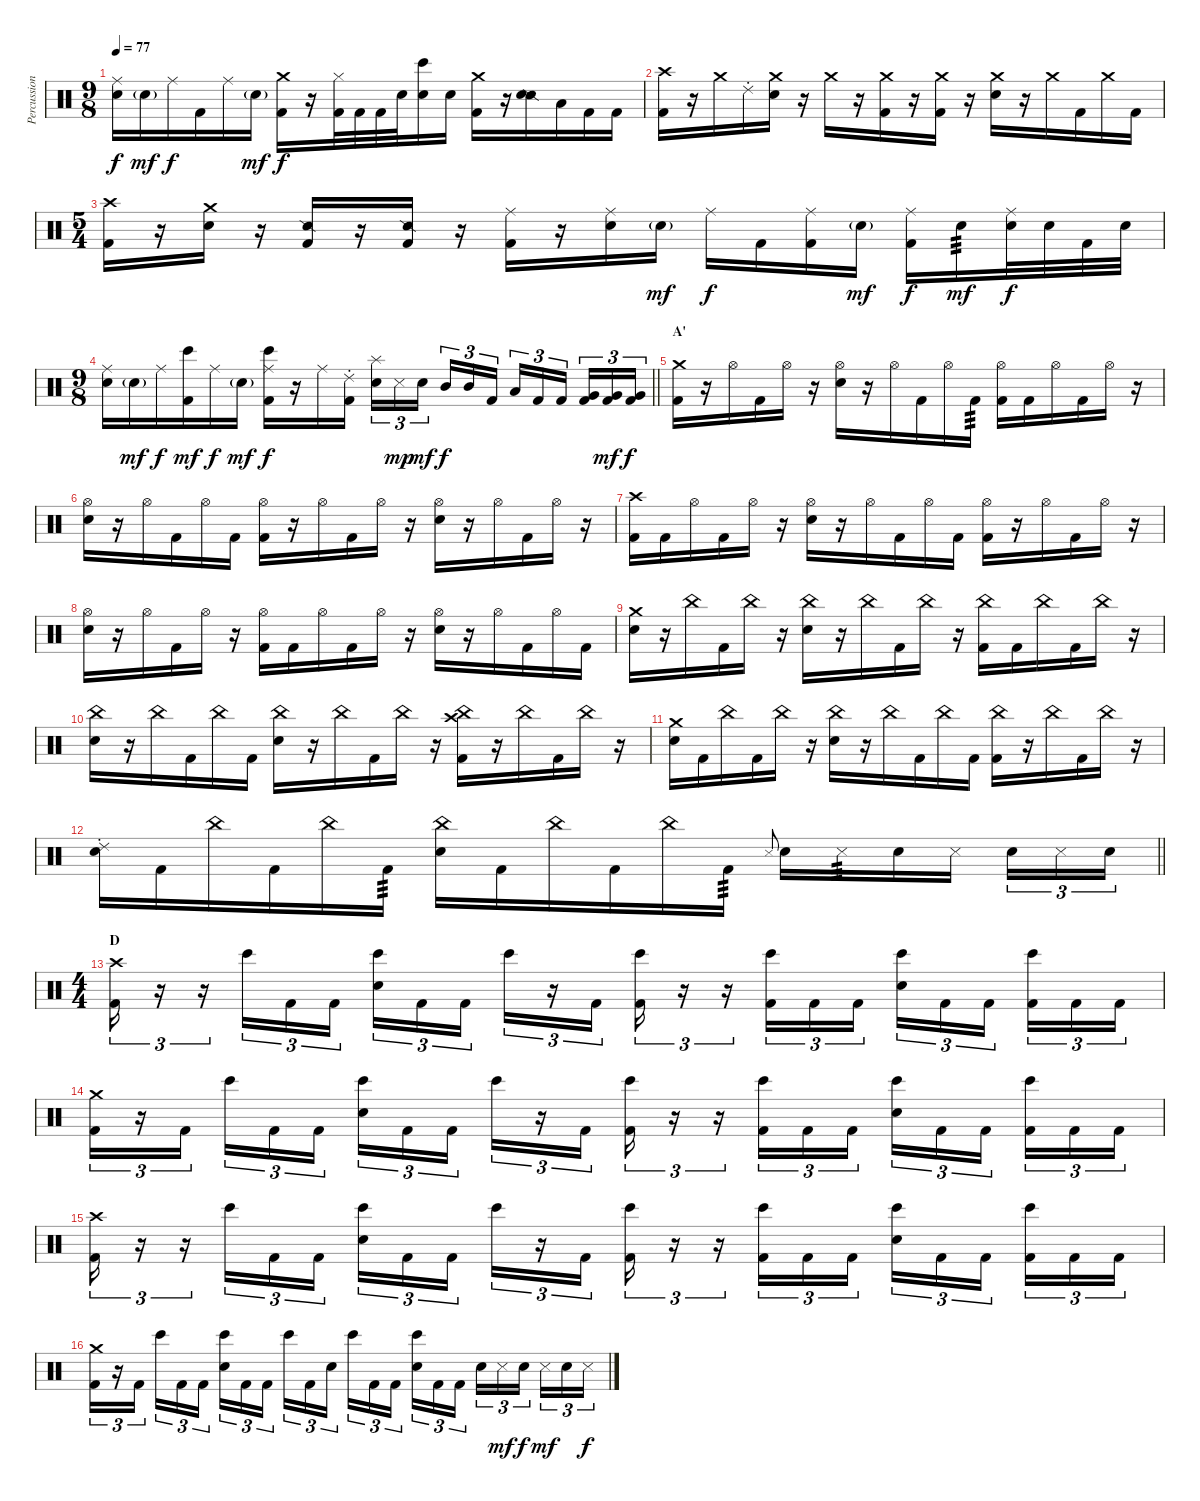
\track ("Percussion" "Percussion") {instrument percussion}
\staff {score}
\articulation defaults
\ts (9 8)
\tempo 77
\clef neutral
\ks c
("Ride (middle)" "Snare (hit) 2").16{dy f} "Snare (hit) 2"{g}.16{dy mf} "Ride (middle)".16{dy f} "Kick (hit) 2".16 "Ride (middle)".16 "Snare (hit) 2"{g}.16{dy mf} ("Crash medium (hit)" "Kick (hit) 2").16{dy f} r.16 ("Hi-Hat (closed)" "Kick (hit) 2").32 "Kick (hit) 2".32 "Kick (hit) 2".32 "Snare (hit) 2".32 ("Bongo High (hit)" "Snare (hit) 2").16 "Snare (hit) 2".16 ("Crash medium (hit)" "Kick (hit) 2").16 r.16 ("Snare (side stick) 2" "Snare (hit) 2").16 "Low Tom (hit)".16 "Kick (hit) 2".16 "Kick (hit) 2".16 |
("Crash high (hit)" "Kick (hit) 2").16 r.16 "Crash medium (hit)".16 "Ride (choke) 2".16 ("Crash medium (hit)" "Snare (hit) 2").16 r.16 "Crash medium (hit)".16 r.16 ("Crash medium (hit)" "Kick (hit) 2").16 r.16 ("Crash medium (hit)" "Kick (hit) 2").16 r.16 ("Crash medium (hit)" "Snare (hit) 2").16 r.16 "Crash medium (hit)".16 "Kick (hit) 2".16 "Crash medium (hit)".16 "Kick (hit) 2".16 |
\ts (5 4)
("Crash high (hit)" "Kick (hit) 2").16 r.16 ("Crash medium (hit)" "Snare (hit) 2").16 r.16 ("Snare (side stick) 2" "Kick (hit) 2").16 r.16 ("Snare (side stick) 2" "Kick (hit) 2").16 r.16 ("Ride (middle)" "Kick (hit) 2").16 r.16 ("Ride (middle)" "Snare (hit) 2").16 "Snare (hit) 2"{g}.16{dy mf} "Ride (middle)".16{dy f} "Kick (hit) 2".16 ("Ride (middle)" "Kick (hit) 2").16 "Snare (hit) 2"{g}.16{dy mf} ("Ride (middle)" "Kick (hit) 2").16{dy f} "Snare (hit) 2".16{tp 3 dy mf} ("Ride (middle)" "Snare (hit) 2").32{dy f} "Snare (hit) 2".32 "Kick (hit) 2".32 "Snare (hit) 2".32 |
\ts (9 8)
\barLineRight lightlight
("Ride (middle)" "Snare (hit) 2").16 "Snare (hit) 2"{g}.16{dy mf} "Ride (middle)".16{dy f} ("Bongo High (hit)" "Kick (hit) 2").16{dy mf} "Ride (middle)".16{dy f} "Snare (hit) 2"{g}.16{dy mf} ("Ride (middle)" "Bongo High (hit)" "Kick (hit) 2").16{dy f} r.16 "Ride (middle)".16 ("Ride (choke) 2" "Kick (hit) 2").16{beam splitsecondary} ("Splash (hit)" "Snare (hit) 2").16{tu (3 2)} "Metronome (hit)".16{tu (3 2) dy mp} "Snare (hit) 2".16{tu (3 2) dy mf} "Mid Tom (hit)".16{tu (3 2) dy f} "Mid Tom (hit)".16{tu (3 2)} "Kick (hit) 2".16{tu (3 2) beam splitsecondary} "Low Tom (hit)".16{tu (3 2)} "Kick (hit) 2".16{tu (3 2)} "Kick (hit) 2".16{tu (3 2) beam splitsecondary} ("Very Low Tom (hit)" "Kick (hit) 2").16{tu (3 2)} ("Very Low Tom (hit)" "Kick (hit) 2").16{tu (3 2) dy mf} ("Very Low Tom (hit)" "Kick (hit) 2").16{tu (3 2) dy f} |
\section ("" "A'")
("Crash medium (hit)" "Kick (hit) 2").16 r.16 "Hi-Hat (open)".16 "Kick (hit) 2".16 "Hi-Hat (open)".16 r.16 ("Hi-Hat (open)" "Snare (hit) 2").16 r.16 "Hi-Hat (open)".16 "Kick (hit) 2".16 "Hi-Hat (open)".16 "Kick (hit) 2".16{tp 3} ("Hi-Hat (open)" "Kick (hit) 2").16 "Kick (hit) 2".16 "Hi-Hat (open)".16 "Kick (hit) 2".16 "Hi-Hat (open)".16 r.16 |
("Hi-Hat (open)" "Snare (hit) 2").16 r.16 "Hi-Hat (open)".16 "Kick (hit) 2".16 "Hi-Hat (open)".16 "Kick (hit) 2".16 ("Hi-Hat (open)" "Kick (hit) 2").16 r.16 "Hi-Hat (open)".16 "Kick (hit) 2".16 "Hi-Hat (open)".16 r.16 ("Hi-Hat (open)" "Snare (hit) 2").16 r.16 "Hi-Hat (open)".16 "Kick (hit) 2".16 "Hi-Hat (open)".16 r.16 |
("Crash high (hit)" "Kick (hit) 2").16 "Kick (hit) 2".16 "Hi-Hat (open)".16 "Kick (hit) 2".16 "Hi-Hat (open)".16 r.16 ("Hi-Hat (open)" "Snare (hit) 2").16 r.16 "Hi-Hat (open)".16 "Kick (hit) 2".16 "Hi-Hat (open)".16 "Kick (hit) 2".16 ("Hi-Hat (open)" "Kick (hit) 2").16 r.16 "Hi-Hat (open)".16 "Kick (hit) 2".16 "Hi-Hat (open)".16 r.16 |
("Hi-Hat (open)" "Snare (hit) 2").16 r.16 "Hi-Hat (open)".16 "Kick (hit) 2".16 "Hi-Hat (open)".16 r.16 ("Hi-Hat (open)" "Kick (hit) 2").16 "Kick (hit) 2".16 "Hi-Hat (open)".16 "Kick (hit) 2".16 "Hi-Hat (open)".16 r.16 ("Hi-Hat (open)" "Snare (hit) 2").16 r.16 "Hi-Hat (open)".16 "Kick (hit) 2".16 "Hi-Hat (open)".16 "Kick (hit) 2".16 |
("Crash medium (hit)" "Snare (hit) 2").16 r.16 "China (hit)".16 "Kick (hit) 2".16 "China (hit)".16 r.16 ("China (hit)" "Snare (hit) 2").16 r.16 "China (hit)".16 "Kick (hit) 2".16 "China (hit)".16 r.16 ("China (hit)" "Kick (hit) 2").16 "Kick (hit) 2".16 "China (hit)".16 "Kick (hit) 2".16 "China (hit)".16 r.16 |
("China (hit)" "Snare (hit) 2").16 r.16 "China (hit)".16 "Kick (hit) 2".16 "China (hit)".16 "Kick (hit) 2".16 ("China (hit)" "Snare (hit) 2").16 r.16 "China (hit)".16 "Kick (hit) 2".16 "China (hit)".16 r.16 ("China (hit)" "Crash high (hit)" "Kick (hit) 2").16 r.16 "China (hit)".16 "Kick (hit) 2".16 "China (hit)".16 r.16 |
("Crash medium (hit)" "Snare (hit) 2").16 "Kick (hit) 2".16 "China (hit)".16 "Kick (hit) 2".16 "China (hit)".16 r.16 ("China (hit)" "Snare (hit) 2").16 r.16 "China (hit)".16 "Kick (hit) 2".16 "China (hit)".16 "Kick (hit) 2".16 ("China (hit)" "Kick (hit) 2").16 r.16 "China (hit)".16 "Kick (hit) 2".16 "China (hit)".16 r.16 |
\barLineRight lightlight
("Ride (choke) 2" "Snare (hit) 2").16 "Kick (hit) 2".16 "China (hit)".16 "Kick (hit) 2".16 "China (hit)".16 "Kick (hit) 2".16{tp 3} ("China (hit)" "Snare (hit) 2").16 "Kick (hit) 2".16 "China (hit)".16 "Kick (hit) 2".16 "China (hit)".16 "Kick (hit) 2".16{tp 3} "Metronome (hit)".8{gr onbeat} "Snare (hit) 2".16 "Metronome (hit)".16{tp 3} "Snare (hit) 2".16 "Metronome (hit)".16{beam splitsecondary} "Snare (hit) 2".16{tu (3 2)} "Metronome (hit)".16{tu (3 2)} "Snare (hit) 2".16{tu (3 2)} |
\ts (4 4)
\section ("" "D")
("Crash high (hit)" "Kick (hit) 2").16{tu (3 2)} r.16{tu (3 2)} r.16{tu (3 2)} "Bongo High (hit)".16{tu (3 2)} "Kick (hit) 2".16{tu (3 2)} "Kick (hit) 2".16{tu (3 2)} ("Bongo High (hit)" "Snare (hit) 2").16{tu (3 2)} "Kick (hit) 2".16{tu (3 2)} "Kick (hit) 2".16{tu (3 2) beam splitsecondary} "Bongo High (hit)".16{tu (3 2)} r.16{tu (3 2)} "Kick (hit) 2".16{tu (3 2)} ("Bongo High (hit)" "Kick (hit) 2").16{tu (3 2)} r.16{tu (3 2)} r.16{tu (3 2)} ("Bongo High (hit)" "Kick (hit) 2").16{tu (3 2)} "Kick (hit) 2".16{tu (3 2)} "Kick (hit) 2".16{tu (3 2)} ("Bongo High (hit)" "Snare (hit) 2").16{tu (3 2)} "Kick (hit) 2".16{tu (3 2)} "Kick (hit) 2".16{tu (3 2) beam splitsecondary} ("Bongo High (hit)" "Kick (hit) 2").16{tu (3 2)} "Kick (hit) 2".16{tu (3 2)} "Kick (hit) 2".16{tu (3 2)} |
("Crash medium (hit)" "Kick (hit) 2").16{tu (3 2)} r.16{tu (3 2)} "Kick (hit) 2".16{tu (3 2) beam splitsecondary} "Bongo High (hit)".16{tu (3 2)} "Kick (hit) 2".16{tu (3 2)} "Kick (hit) 2".16{tu (3 2)} ("Bongo High (hit)" "Snare (hit) 2").16{tu (3 2)} "Kick (hit) 2".16{tu (3 2)} "Kick (hit) 2".16{tu (3 2) beam splitsecondary} "Bongo High (hit)".16{tu (3 2)} r.16{tu (3 2)} "Kick (hit) 2".16{tu (3 2)} ("Bongo High (hit)" "Kick (hit) 2").16{tu (3 2)} r.16{tu (3 2)} r.16{tu (3 2)} ("Bongo High (hit)" "Kick (hit) 2").16{tu (3 2)} "Kick (hit) 2".16{tu (3 2)} "Kick (hit) 2".16{tu (3 2)} ("Bongo High (hit)" "Snare (hit) 2").16{tu (3 2)} "Kick (hit) 2".16{tu (3 2)} "Kick (hit) 2".16{tu (3 2) beam splitsecondary} ("Bongo High (hit)" "Kick (hit) 2").16{tu (3 2)} "Kick (hit) 2".16{tu (3 2)} "Kick (hit) 2".16{tu (3 2)} |
("Crash high (hit)" "Kick (hit) 2").16{tu (3 2)} r.16{tu (3 2)} r.16{tu (3 2)} "Bongo High (hit)".16{tu (3 2)} "Kick (hit) 2".16{tu (3 2)} "Kick (hit) 2".16{tu (3 2)} ("Bongo High (hit)" "Snare (hit) 2").16{tu (3 2)} "Kick (hit) 2".16{tu (3 2)} "Kick (hit) 2".16{tu (3 2) beam splitsecondary} "Bongo High (hit)".16{tu (3 2)} r.16{tu (3 2)} "Kick (hit) 2".16{tu (3 2)} ("Bongo High (hit)" "Kick (hit) 2").16{tu (3 2)} r.16{tu (3 2)} r.16{tu (3 2)} ("Bongo High (hit)" "Kick (hit) 2").16{tu (3 2)} "Kick (hit) 2".16{tu (3 2)} "Kick (hit) 2".16{tu (3 2)} ("Bongo High (hit)" "Snare (hit) 2").16{tu (3 2)} "Kick (hit) 2".16{tu (3 2)} "Kick (hit) 2".16{tu (3 2) beam splitsecondary} ("Bongo High (hit)" "Kick (hit) 2").16{tu (3 2)} "Kick (hit) 2".16{tu (3 2)} "Kick (hit) 2".16{tu (3 2)} |
("Crash medium (hit)" "Kick (hit) 2").16{tu (3 2)} r.16{tu (3 2)} "Kick (hit) 2".16{tu (3 2) beam splitsecondary} "Bongo High (hit)".16{tu (3 2)} "Kick (hit) 2".16{tu (3 2)} "Kick (hit) 2".16{tu (3 2)} ("Bongo High (hit)" "Snare (hit) 2").16{tu (3 2)} "Kick (hit) 2".16{tu (3 2)} "Kick (hit) 2".16{tu (3 2) beam splitsecondary} "Bongo High (hit)".16{tu (3 2)} "Kick (hit) 2".16{tu (3 2)} "Snare (hit) 2".16{tu (3 2)} "Bongo High (hit)".16{tu (3 2)} "Kick (hit) 2".16{tu (3 2)} "Kick (hit) 2".16{tu (3 2) beam splitsecondary} ("Bongo High (hit)" "Snare (hit) 2").16{tu (3 2)} "Kick (hit) 2".16{tu (3 2)} "Kick (hit) 2".16{tu (3 2)} "Snare (hit) 2".16{tu (3 2)} "Metronome (hit)".16{tu (3 2) dy mf} "Snare (hit) 2".16{tu (3 2) dy f beam splitsecondary} "Metronome (hit)".16{tu (3 2) dy mf} "Snare (hit) 2".16{tu (3 2)} "Metronome (hit)".16{tu (3 2) dy f}
